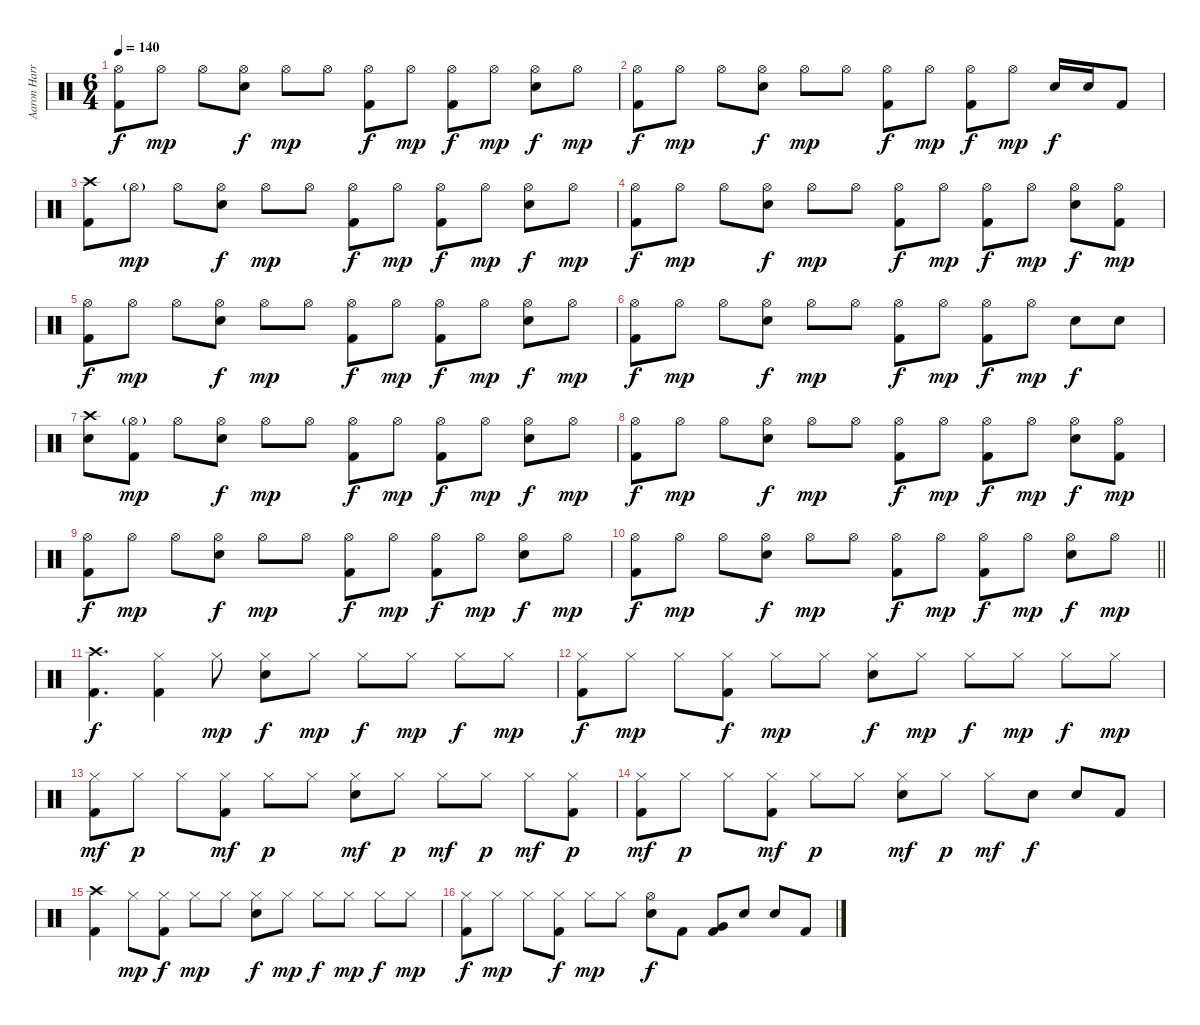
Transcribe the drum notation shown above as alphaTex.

\track ("Aaron Harris" "Aaron Harr") {instrument percussion}
\staff {score}
\articulation defaults
\ts (6 4)
\tempo 140
\clef neutral
\ks c
("Hi-Hat (open)" "Kick (hit) 2").8{dy f} "Hi-Hat (open)".8{dy mp} "Hi-Hat (open)".8 ("Hi-Hat (open)" "Electric Snare (hit)").8{dy f} "Hi-Hat (open)".8{dy mp} "Hi-Hat (open)".8 ("Hi-Hat (open)" "Kick (hit) 2").8{dy f} "Hi-Hat (open)".8{dy mp} ("Hi-Hat (open)" "Kick (hit) 2").8{dy f} "Hi-Hat (open)".8{dy mp} ("Hi-Hat (open)" "Electric Snare (hit)").8{dy f} "Hi-Hat (open)".8{dy mp} |
("Hi-Hat (open)" "Kick (hit) 2").8{dy f} "Hi-Hat (open)".8{dy mp} "Hi-Hat (open)".8 ("Hi-Hat (open)" "Electric Snare (hit)").8{dy f} "Hi-Hat (open)".8{dy mp} "Hi-Hat (open)".8 ("Hi-Hat (open)" "Kick (hit) 2").8{dy f} "Hi-Hat (open)".8{dy mp} ("Hi-Hat (open)" "Kick (hit) 2").8{dy f} "Hi-Hat (open)".8{dy mp} "Electric Snare (hit)".16{dy f} "Electric Snare (hit)".16 "Kick (hit) 2".8 |
("Crash high (hit)" "Kick (hit) 2").8 "Hi-Hat (open)"{g}.8{dy mp} "Hi-Hat (open)".8 ("Hi-Hat (open)" "Electric Snare (hit)").8{dy f} "Hi-Hat (open)".8{dy mp} "Hi-Hat (open)".8 ("Hi-Hat (open)" "Kick (hit) 2").8{dy f} "Hi-Hat (open)".8{dy mp} ("Hi-Hat (open)" "Kick (hit) 2").8{dy f} "Hi-Hat (open)".8{dy mp} ("Hi-Hat (open)" "Electric Snare (hit)").8{dy f} "Hi-Hat (open)".8{dy mp} |
("Hi-Hat (open)" "Kick (hit) 2").8{dy f} "Hi-Hat (open)".8{dy mp} "Hi-Hat (open)".8 ("Hi-Hat (open)" "Electric Snare (hit)").8{dy f} "Hi-Hat (open)".8{dy mp} "Hi-Hat (open)".8 ("Hi-Hat (open)" "Kick (hit) 2").8{dy f} "Hi-Hat (open)".8{dy mp} ("Hi-Hat (open)" "Kick (hit) 2").8{dy f} "Hi-Hat (open)".8{dy mp} ("Hi-Hat (open)" "Electric Snare (hit)").8{dy f} ("Hi-Hat (open)" "Kick (hit) 2").8{dy mp} |
("Hi-Hat (open)" "Kick (hit) 2").8{dy f} "Hi-Hat (open)".8{dy mp} "Hi-Hat (open)".8 ("Hi-Hat (open)" "Electric Snare (hit)").8{dy f} "Hi-Hat (open)".8{dy mp} "Hi-Hat (open)".8 ("Hi-Hat (open)" "Kick (hit) 2").8{dy f} "Hi-Hat (open)".8{dy mp} ("Hi-Hat (open)" "Kick (hit) 2").8{dy f} "Hi-Hat (open)".8{dy mp} ("Hi-Hat (open)" "Electric Snare (hit)").8{dy f} "Hi-Hat (open)".8{dy mp} |
("Hi-Hat (open)" "Kick (hit) 2").8{dy f} "Hi-Hat (open)".8{dy mp} "Hi-Hat (open)".8 ("Hi-Hat (open)" "Electric Snare (hit)").8{dy f} "Hi-Hat (open)".8{dy mp} "Hi-Hat (open)".8 ("Hi-Hat (open)" "Kick (hit) 2").8{dy f} "Hi-Hat (open)".8{dy mp} ("Hi-Hat (open)" "Kick (hit) 2").8{dy f} "Hi-Hat (open)".8{dy mp} "Electric Snare (hit)".8{dy f} "Electric Snare (hit)".8 |
("Crash high (hit)" "Electric Snare (hit)").8 ("Hi-Hat (open)"{g} "Kick (hit) 2").8{dy mp} "Hi-Hat (open)".8 ("Hi-Hat (open)" "Electric Snare (hit)").8{dy f} "Hi-Hat (open)".8{dy mp} "Hi-Hat (open)".8 ("Hi-Hat (open)" "Kick (hit) 2").8{dy f} "Hi-Hat (open)".8{dy mp} ("Hi-Hat (open)" "Kick (hit) 2").8{dy f} "Hi-Hat (open)".8{dy mp} ("Hi-Hat (open)" "Electric Snare (hit)").8{dy f} "Hi-Hat (open)".8{dy mp} |
("Hi-Hat (open)" "Kick (hit) 2").8{dy f} "Hi-Hat (open)".8{dy mp} "Hi-Hat (open)".8 ("Hi-Hat (open)" "Electric Snare (hit)").8{dy f} "Hi-Hat (open)".8{dy mp} "Hi-Hat (open)".8 ("Hi-Hat (open)" "Kick (hit) 2").8{dy f} "Hi-Hat (open)".8{dy mp} ("Hi-Hat (open)" "Kick (hit) 2").8{dy f} "Hi-Hat (open)".8{dy mp} ("Hi-Hat (open)" "Electric Snare (hit)").8{dy f} ("Hi-Hat (open)" "Kick (hit) 2").8{dy mp} |
("Hi-Hat (open)" "Kick (hit) 2").8{dy f} "Hi-Hat (open)".8{dy mp} "Hi-Hat (open)".8 ("Hi-Hat (open)" "Electric Snare (hit)").8{dy f} "Hi-Hat (open)".8{dy mp} "Hi-Hat (open)".8 ("Hi-Hat (open)" "Kick (hit) 2").8{dy f} "Hi-Hat (open)".8{dy mp} ("Hi-Hat (open)" "Kick (hit) 2").8{dy f} "Hi-Hat (open)".8{dy mp} ("Hi-Hat (open)" "Electric Snare (hit)").8{dy f} "Hi-Hat (open)".8{dy mp} |
\barLineRight lightlight
("Hi-Hat (open)" "Kick (hit) 2").8{dy f} "Hi-Hat (open)".8{dy mp} "Hi-Hat (open)".8 ("Hi-Hat (open)" "Electric Snare (hit)").8{dy f} "Hi-Hat (open)".8{dy mp} "Hi-Hat (open)".8 ("Hi-Hat (open)" "Kick (hit) 2").8{dy f} "Hi-Hat (open)".8{dy mp} ("Hi-Hat (open)" "Kick (hit) 2").8{dy f} "Hi-Hat (open)".8{dy mp} ("Hi-Hat (open)" "Electric Snare (hit)").8{dy f} "Hi-Hat (open)".8{dy mp} |
\section ("" "")
("Crash high (hit)" "Kick (hit) 2").4{d dy f} ("Hi-Hat (closed)" "Kick (hit) 2").4 "Hi-Hat (closed)".8{dy mp} ("Hi-Hat (closed)" "Electric Snare (hit)").8{dy f} "Hi-Hat (closed)".8{dy mp} "Hi-Hat (closed)".8{dy f} "Hi-Hat (closed)".8{dy mp} "Hi-Hat (closed)".8{dy f} "Hi-Hat (closed)".8{dy mp} |
("Hi-Hat (closed)" "Kick (hit) 2").8{dy f} "Hi-Hat (closed)".8{dy mp} "Hi-Hat (closed)".8 ("Hi-Hat (closed)" "Kick (hit) 2").8{dy f} "Hi-Hat (closed)".8{dy mp} "Hi-Hat (closed)".8 ("Hi-Hat (closed)" "Electric Snare (hit)").8{dy f} "Hi-Hat (closed)".8{dy mp} "Hi-Hat (closed)".8{dy f} "Hi-Hat (closed)".8{dy mp} "Hi-Hat (closed)".8{dy f} "Hi-Hat (closed)".8{dy mp} |
("Hi-Hat (closed)" "Kick (hit) 2").8{dy mf} "Hi-Hat (closed)".8{dy p} "Hi-Hat (closed)".8 ("Hi-Hat (closed)" "Kick (hit) 2").8{dy mf} "Hi-Hat (closed)".8{dy p} "Hi-Hat (closed)".8 ("Hi-Hat (closed)" "Electric Snare (hit)").8{dy mf} "Hi-Hat (closed)".8{dy p} "Hi-Hat (closed)".8{dy mf} "Hi-Hat (closed)".8{dy p} "Hi-Hat (closed)".8{dy mf} ("Hi-Hat (closed)" "Kick (hit) 2").8{dy p} |
("Hi-Hat (closed)" "Kick (hit) 2").8{dy mf} "Hi-Hat (closed)".8{dy p} "Hi-Hat (closed)".8 ("Hi-Hat (closed)" "Kick (hit) 2").8{dy mf} "Hi-Hat (closed)".8{dy p} "Hi-Hat (closed)".8 ("Hi-Hat (closed)" "Electric Snare (hit)").8{dy mf} "Hi-Hat (closed)".8{dy p} "Hi-Hat (closed)".8{dy mf} "Electric Snare (hit)".8{dy f} "Electric Snare (hit)".8 "Kick (hit) 2".8 |
("Crash high (hit)" "Kick (hit) 2").4 "Hi-Hat (closed)".8{dy mp} ("Hi-Hat (closed)" "Kick (hit) 2").8{dy f} "Hi-Hat (closed)".8{dy mp} "Hi-Hat (closed)".8 ("Hi-Hat (closed)" "Electric Snare (hit)").8{dy f} "Hi-Hat (closed)".8{dy mp} "Hi-Hat (closed)".8{dy f} "Hi-Hat (closed)".8{dy mp} "Hi-Hat (closed)".8{dy f} "Hi-Hat (closed)".8{dy mp} |
("Hi-Hat (closed)" "Kick (hit) 2").8{dy f} "Hi-Hat (closed)".8{dy mp} "Hi-Hat (closed)".8 ("Hi-Hat (closed)" "Kick (hit) 2").8{dy f} "Hi-Hat (closed)".8{dy mp} "Hi-Hat (closed)".8 ("Hi-Hat (open)" "Electric Snare (hit)").8{dy f} "Kick (hit) 2".8 ("Very Low Tom (hit)" "Kick (hit) 2").8 "Electric Snare (hit)".8 "Electric Snare (hit)".8 "Kick (hit) 2".8
